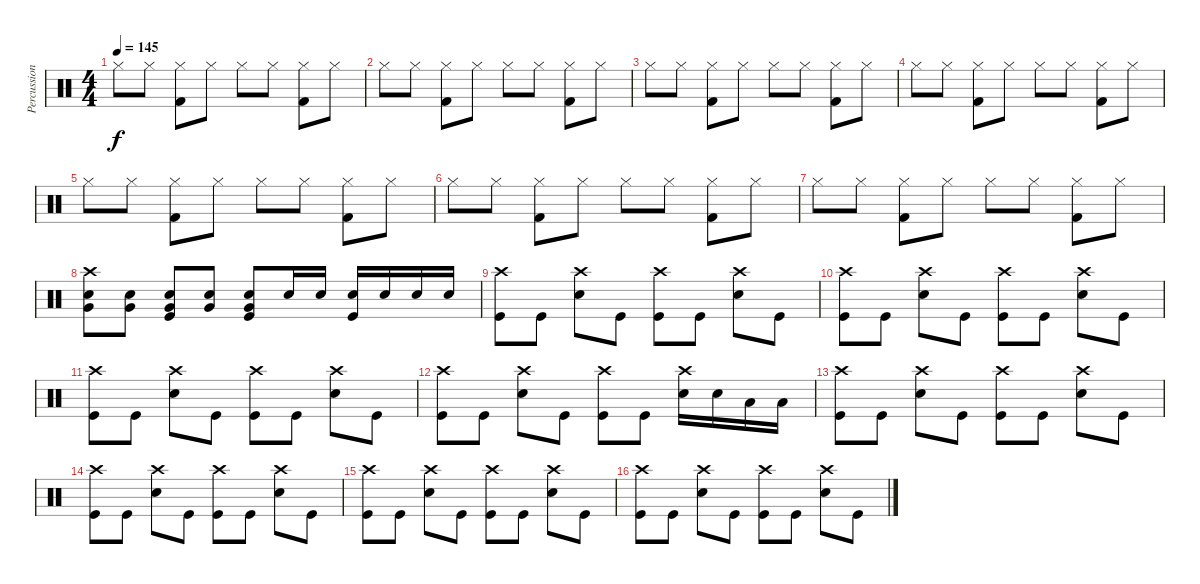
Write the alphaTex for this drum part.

\track ("Percussion" "Percussion") {instrument percussion}
\staff {score}
\articulation defaults
\ts (4 4)
\tempo 145
\clef neutral
\ks c "Hi-Hat (closed)".8{dy f} "Hi-Hat (closed)".8
("Kick (hit) 2" "Hi-Hat (closed)").8 "Hi-Hat (closed)".8 "Hi-Hat (closed)".8 "Hi-Hat (closed)".8 ("Hi-Hat (closed)" "Kick (hit) 2").8 "Hi-Hat (closed)".8 |
"Hi-Hat (closed)".8 "Hi-Hat (closed)".8 ("Kick (hit) 2" "Hi-Hat (closed)").8 "Hi-Hat (closed)".8 "Hi-Hat (closed)".8 "Hi-Hat (closed)".8 ("Hi-Hat (closed)" "Kick (hit) 2").8 "Hi-Hat (closed)".8 |
"Hi-Hat (closed)".8 "Hi-Hat (closed)".8 ("Kick (hit) 2" "Hi-Hat (closed)").8 "Hi-Hat (closed)".8 "Hi-Hat (closed)".8 "Hi-Hat (closed)".8 ("Hi-Hat (closed)" "Kick (hit) 2").8 "Hi-Hat (closed)".8 |
"Hi-Hat (closed)".8 "Hi-Hat (closed)".8 ("Kick (hit) 2" "Hi-Hat (closed)").8 "Hi-Hat (closed)".8 "Hi-Hat (closed)".8 "Hi-Hat (closed)".8 ("Hi-Hat (closed)" "Kick (hit) 2").8 "Hi-Hat (closed)".8 |
"Hi-Hat (closed)".8 "Hi-Hat (closed)".8 ("Kick (hit) 2" "Hi-Hat (closed)").8 "Hi-Hat (closed)".8 "Hi-Hat (closed)".8 "Hi-Hat (closed)".8 ("Hi-Hat (closed)" "Kick (hit) 2").8 "Hi-Hat (closed)".8 |
"Hi-Hat (closed)".8 "Hi-Hat (closed)".8 ("Kick (hit) 2" "Hi-Hat (closed)").8 "Hi-Hat (closed)".8 "Hi-Hat (closed)".8 "Hi-Hat (closed)".8 ("Hi-Hat (closed)" "Kick (hit) 2").8 "Hi-Hat (closed)".8 |
"Hi-Hat (closed)".8 "Hi-Hat (closed)".8 ("Kick (hit) 2" "Hi-Hat (closed)").8 "Hi-Hat (closed)".8 "Hi-Hat (closed)".8 "Hi-Hat (closed)".8 ("Hi-Hat (closed)" "Kick (hit) 2").8 "Hi-Hat (closed)".8 |
("Crash high (hit)" "Snare (hit) 2" "Very Low Tom (hit)").8 ("Snare (hit) 2" "Very Low Tom (hit)").8 ("Kick (hit)" "Snare (hit) 2" "Very Low Tom (hit)").8 ("Snare (hit) 2" "Very Low Tom (hit)").8 ("Kick (hit)" "Snare (hit) 2" "Very Low Tom (hit)").8 "Snare (hit) 2".16 "Snare (hit) 2".16 ("Snare (hit) 2" "Kick (hit)").16 "Snare (hit) 2".16 "Snare (hit) 2".16 "Snare (hit) 2".16 |
("Kick (hit)" "Crash high (hit)").8 "Kick (hit)".8 ("Snare (hit) 2" "Crash high (hit)").8 "Kick (hit)".8 ("Kick (hit)" "Crash high (hit)").8 "Kick (hit)".8 ("Snare (hit) 2" "Crash high (hit)").8 "Kick (hit)".8 |
("Kick (hit)" "Crash high (hit)").8 "Kick (hit)".8 ("Snare (hit) 2" "Crash high (hit)").8 "Kick (hit)".8 ("Kick (hit)" "Crash high (hit)").8 "Kick (hit)".8 ("Snare (hit) 2" "Crash high (hit)").8 "Kick (hit)".8 |
("Kick (hit)" "Crash high (hit)").8 "Kick (hit)".8 ("Snare (hit) 2" "Crash high (hit)").8 "Kick (hit)".8 ("Kick (hit)" "Crash high (hit)").8 "Kick (hit)".8 ("Snare (hit) 2" "Crash high (hit)").8 "Kick (hit)".8 |
("Kick (hit)" "Crash high (hit)").8 "Kick (hit)".8 ("Snare (hit) 2" "Crash high (hit)").8 "Kick (hit)".8 ("Kick (hit)" "Crash high (hit)").8 "Kick (hit)".8 ("Snare (hit) 2" "Crash high (hit)").16 "Snare (hit) 2".16 "Low Tom (hit)".16 "Low Tom (hit)".16 |
("Kick (hit)" "Crash high (hit)").8 "Kick (hit)".8 ("Snare (hit) 2" "Crash high (hit)").8 "Kick (hit)".8 ("Kick (hit)" "Crash high (hit)").8 "Kick (hit)".8 ("Snare (hit) 2" "Crash high (hit)").8 "Kick (hit)".8 |
("Kick (hit)" "Crash high (hit)").8 "Kick (hit)".8 ("Snare (hit) 2" "Crash high (hit)").8 "Kick (hit)".8 ("Kick (hit)" "Crash high (hit)").8 "Kick (hit)".8 ("Snare (hit) 2" "Crash high (hit)").8 "Kick (hit)".8 |
("Kick (hit)" "Crash high (hit)").8 "Kick (hit)".8 ("Snare (hit) 2" "Crash high (hit)").8 "Kick (hit)".8 ("Kick (hit)" "Crash high (hit)").8 "Kick (hit)".8 ("Snare (hit) 2" "Crash high (hit)").8 "Kick (hit)".8 |
("Kick (hit)" "Crash high (hit)").8 "Kick (hit)".8 ("Snare (hit) 2" "Crash high (hit)").8 "Kick (hit)".8 ("Kick (hit)" "Crash high (hit)").8 "Kick (hit)".8 ("Snare (hit) 2" "Crash high (hit)").8 "Kick (hit)".8
